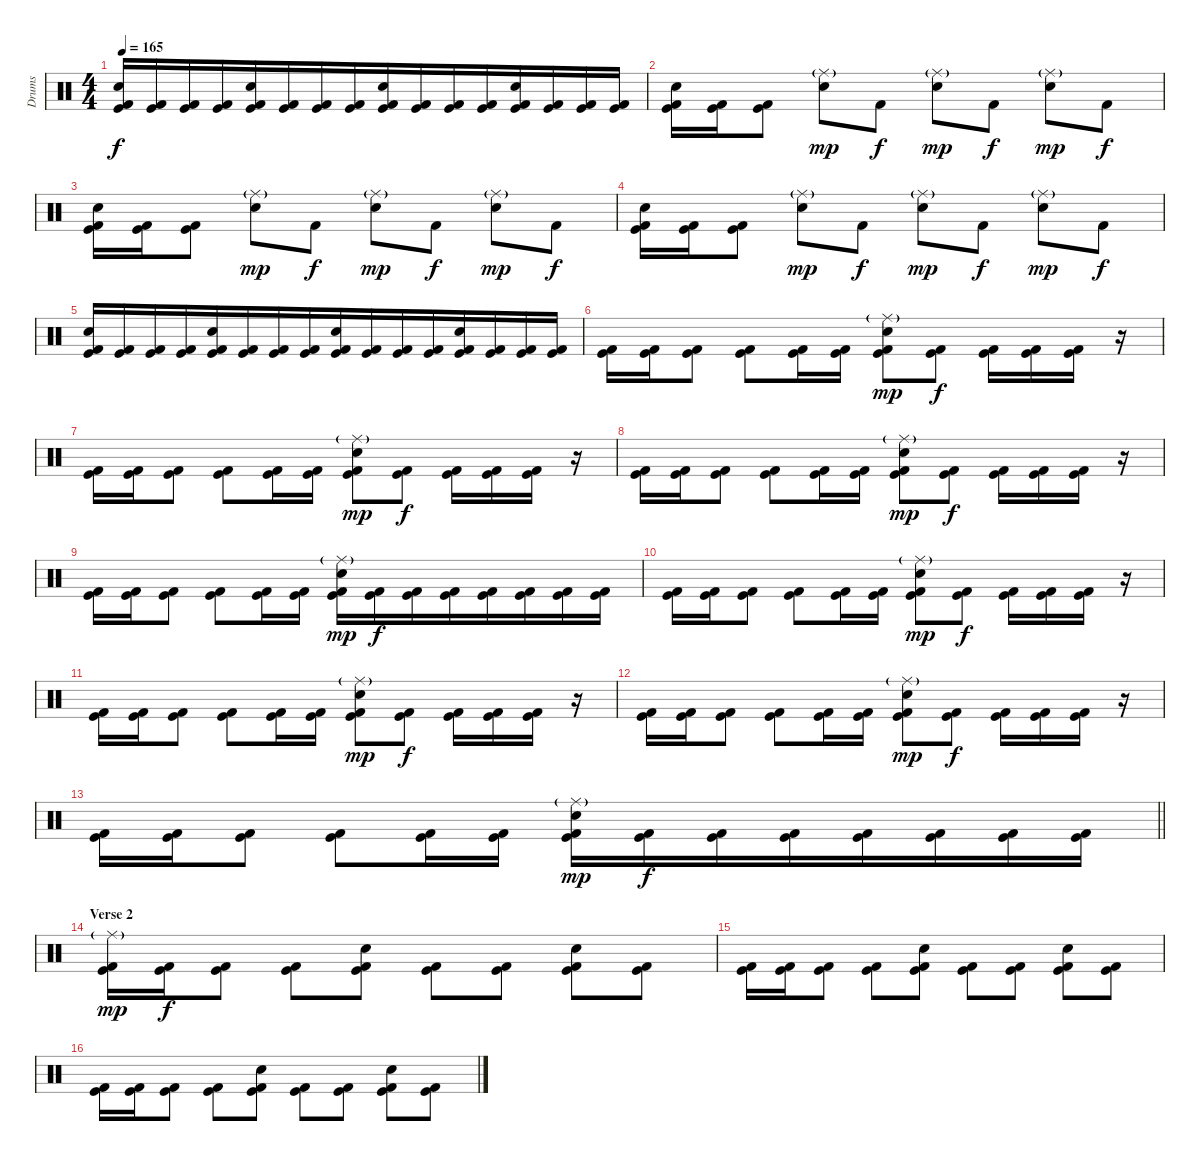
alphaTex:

\track ("Drums" "Drums") {instrument percussion}
\staff {score}
\articulation defaults
\ts (4 4)
\tempo 165
\clef neutral
\ks c
("Snare (hit) 2" "Kick (hit)" "Kick (hit) 2").16{dy f} ("Kick (hit)" "Kick (hit) 2").16 ("Kick (hit)" "Kick (hit) 2").16 ("Kick (hit)" "Kick (hit) 2").16{beam merge} ("Snare (hit) 2" "Kick (hit)" "Kick (hit) 2").16 ("Kick (hit)" "Kick (hit) 2").16 ("Kick (hit)" "Kick (hit) 2").16 ("Kick (hit)" "Kick (hit) 2").16{beam merge} ("Snare (hit) 2" "Kick (hit)" "Kick (hit) 2").16 ("Kick (hit)" "Kick (hit) 2").16 ("Kick (hit)" "Kick (hit) 2").16 ("Kick (hit)" "Kick (hit) 2").16{beam merge} ("Snare (hit) 2" "Kick (hit)" "Kick (hit) 2").16 ("Kick (hit)" "Kick (hit) 2").16 ("Kick (hit)" "Kick (hit) 2").16 ("Kick (hit)" "Kick (hit) 2").16 |
("Snare (hit) 2" "Kick (hit)" "Kick (hit) 2").16{beam Down} ("Kick (hit)" "Kick (hit) 2").16{beam Down} ("Kick (hit)" "Kick (hit) 2").8{beam Down} ("Ride (middle)"{g} "Snare (hit) 2").8{dy mp} "Kick (hit) 2".8{dy f} ("Ride (middle)"{g} "Snare (hit) 2").8{dy mp} "Kick (hit) 2".8{dy f} ("Ride (middle)"{g} "Snare (hit) 2").8{dy mp} "Kick (hit) 2".8{dy f} |
("Snare (hit) 2" "Kick (hit)" "Kick (hit) 2").16{beam Down} ("Kick (hit)" "Kick (hit) 2").16{beam Down} ("Kick (hit)" "Kick (hit) 2").8{beam Down} ("Ride (middle)"{g} "Snare (hit) 2").8{dy mp} "Kick (hit) 2".8{dy f} ("Ride (middle)"{g} "Snare (hit) 2").8{dy mp} "Kick (hit) 2".8{dy f} ("Ride (middle)"{g} "Snare (hit) 2").8{dy mp} "Kick (hit) 2".8{dy f} |
("Snare (hit) 2" "Kick (hit)" "Kick (hit) 2").16{beam Down} ("Kick (hit)" "Kick (hit) 2").16{beam Down} ("Kick (hit)" "Kick (hit) 2").8{beam Down} ("Ride (middle)"{g} "Snare (hit) 2").8{dy mp} "Kick (hit) 2".8{dy f} ("Ride (middle)"{g} "Snare (hit) 2").8{dy mp} "Kick (hit) 2".8{dy f} ("Ride (middle)"{g} "Snare (hit) 2").8{dy mp} "Kick (hit) 2".8{dy f} |
("Snare (hit) 2" "Kick (hit)" "Kick (hit) 2").16 ("Kick (hit)" "Kick (hit) 2").16 ("Kick (hit)" "Kick (hit) 2").16 ("Kick (hit)" "Kick (hit) 2").16{beam merge} ("Snare (hit) 2" "Kick (hit)" "Kick (hit) 2").16 ("Kick (hit)" "Kick (hit) 2").16 ("Kick (hit)" "Kick (hit) 2").16 ("Kick (hit)" "Kick (hit) 2").16{beam merge} ("Snare (hit) 2" "Kick (hit)" "Kick (hit) 2").16 ("Kick (hit)" "Kick (hit) 2").16 ("Kick (hit)" "Kick (hit) 2").16 ("Kick (hit)" "Kick (hit) 2").16{beam merge} ("Snare (hit) 2" "Kick (hit)" "Kick (hit) 2").16 ("Kick (hit)" "Kick (hit) 2").16 ("Kick (hit)" "Kick (hit) 2").16 ("Kick (hit)" "Kick (hit) 2").16 |
("Kick (hit)" "Kick (hit) 2").16{beam Down} ("Kick (hit)" "Kick (hit) 2").16{beam Down} ("Kick (hit)" "Kick (hit) 2").8{beam Down} ("Kick (hit)" "Kick (hit) 2").8{beam Down} ("Kick (hit)" "Kick (hit) 2").16{beam Down} ("Kick (hit)" "Kick (hit) 2").16{beam Down} ("Ride (middle)"{g} "Snare (hit) 2" "Kick (hit)" "Kick (hit) 2").8{dy mp beam merge} ("Kick (hit)" "Kick (hit) 2").8{dy f} ("Kick (hit)" "Kick (hit) 2").16{beam Down beam merge} ("Kick (hit)" "Kick (hit) 2").16{beam Down} ("Kick (hit)" "Kick (hit) 2").16{beam Down} r.16 |
("Kick (hit)" "Kick (hit) 2").16{beam Down} ("Kick (hit)" "Kick (hit) 2").16{beam Down} ("Kick (hit)" "Kick (hit) 2").8{beam Down} ("Kick (hit)" "Kick (hit) 2").8{beam Down} ("Kick (hit)" "Kick (hit) 2").16{beam Down} ("Kick (hit)" "Kick (hit) 2").16{beam Down} ("Ride (middle)"{g} "Snare (hit) 2" "Kick (hit)" "Kick (hit) 2").8{dy mp beam merge} ("Kick (hit)" "Kick (hit) 2").8{dy f} ("Kick (hit)" "Kick (hit) 2").16{beam Down beam merge} ("Kick (hit)" "Kick (hit) 2").16{beam Down} ("Kick (hit)" "Kick (hit) 2").16{beam Down} r.16 |
("Kick (hit)" "Kick (hit) 2").16{beam Down} ("Kick (hit)" "Kick (hit) 2").16{beam Down} ("Kick (hit)" "Kick (hit) 2").8{beam Down} ("Kick (hit)" "Kick (hit) 2").8{beam Down} ("Kick (hit)" "Kick (hit) 2").16{beam Down} ("Kick (hit)" "Kick (hit) 2").16{beam Down} ("Ride (middle)"{g} "Snare (hit) 2" "Kick (hit)" "Kick (hit) 2").8{dy mp beam merge} ("Kick (hit)" "Kick (hit) 2").8{dy f} ("Kick (hit)" "Kick (hit) 2").16{beam Down beam merge} ("Kick (hit)" "Kick (hit) 2").16{beam Down} ("Kick (hit)" "Kick (hit) 2").16{beam Down} r.16 |
("Kick (hit)" "Kick (hit) 2").16{beam Down} ("Kick (hit)" "Kick (hit) 2").16{beam Down} ("Kick (hit)" "Kick (hit) 2").8{beam Down} ("Kick (hit)" "Kick (hit) 2").8{beam Down} ("Kick (hit)" "Kick (hit) 2").16{beam Down} ("Kick (hit)" "Kick (hit) 2").16{beam Down} ("Ride (middle)"{g} "Snare (hit) 2" "Kick (hit)" "Kick (hit) 2").16{dy mp beam merge} ("Kick (hit)" "Kick (hit) 2").16{dy f} ("Kick (hit)" "Kick (hit) 2").16{beam merge} ("Kick (hit)" "Kick (hit) 2").16{beam merge} ("Kick (hit)" "Kick (hit) 2").16 ("Kick (hit)" "Kick (hit) 2").16 ("Kick (hit)" "Kick (hit) 2").16 ("Kick (hit)" "Kick (hit) 2").16 |
("Kick (hit)" "Kick (hit) 2").16{beam Down} ("Kick (hit)" "Kick (hit) 2").16{beam Down} ("Kick (hit)" "Kick (hit) 2").8{beam Down} ("Kick (hit)" "Kick (hit) 2").8{beam Down} ("Kick (hit)" "Kick (hit) 2").16{beam Down} ("Kick (hit)" "Kick (hit) 2").16{beam Down} ("Ride (middle)"{g} "Snare (hit) 2" "Kick (hit)" "Kick (hit) 2").8{dy mp beam merge} ("Kick (hit)" "Kick (hit) 2").8{dy f} ("Kick (hit)" "Kick (hit) 2").16{beam Down beam merge} ("Kick (hit)" "Kick (hit) 2").16{beam Down} ("Kick (hit)" "Kick (hit) 2").16{beam Down} r.16 |
("Kick (hit)" "Kick (hit) 2").16{beam Down} ("Kick (hit)" "Kick (hit) 2").16{beam Down} ("Kick (hit)" "Kick (hit) 2").8{beam Down} ("Kick (hit)" "Kick (hit) 2").8{beam Down} ("Kick (hit)" "Kick (hit) 2").16{beam Down} ("Kick (hit)" "Kick (hit) 2").16{beam Down} ("Ride (middle)"{g} "Snare (hit) 2" "Kick (hit)" "Kick (hit) 2").8{dy mp beam merge} ("Kick (hit)" "Kick (hit) 2").8{dy f} ("Kick (hit)" "Kick (hit) 2").16{beam Down beam merge} ("Kick (hit)" "Kick (hit) 2").16{beam Down} ("Kick (hit)" "Kick (hit) 2").16{beam Down} r.16 |
("Kick (hit)" "Kick (hit) 2").16{beam Down} ("Kick (hit)" "Kick (hit) 2").16{beam Down} ("Kick (hit)" "Kick (hit) 2").8{beam Down} ("Kick (hit)" "Kick (hit) 2").8{beam Down} ("Kick (hit)" "Kick (hit) 2").16{beam Down} ("Kick (hit)" "Kick (hit) 2").16{beam Down} ("Ride (middle)"{g} "Snare (hit) 2" "Kick (hit)" "Kick (hit) 2").8{dy mp beam merge} ("Kick (hit)" "Kick (hit) 2").8{dy f} ("Kick (hit)" "Kick (hit) 2").16{beam Down beam merge} ("Kick (hit)" "Kick (hit) 2").16{beam Down} ("Kick (hit)" "Kick (hit) 2").16{beam Down} r.16 |
\barLineRight lightlight
("Kick (hit)" "Kick (hit) 2").16{beam Down} ("Kick (hit)" "Kick (hit) 2").16{beam Down} ("Kick (hit)" "Kick (hit) 2").8{beam Down} ("Kick (hit)" "Kick (hit) 2").8{beam Down} ("Kick (hit)" "Kick (hit) 2").16{beam Down} ("Kick (hit)" "Kick (hit) 2").16{beam Down} ("Ride (middle)"{g} "Snare (hit) 2" "Kick (hit)" "Kick (hit) 2").16{dy mp beam merge} ("Kick (hit)" "Kick (hit) 2").16{dy f} ("Kick (hit)" "Kick (hit) 2").16{beam merge} ("Kick (hit)" "Kick (hit) 2").16{beam merge} ("Kick (hit)" "Kick (hit) 2").16 ("Kick (hit)" "Kick (hit) 2").16 ("Kick (hit)" "Kick (hit) 2").16 ("Kick (hit)" "Kick (hit) 2").16 |
\section ("" "Verse 2")
("Ride (middle)"{g} "Kick (hit)" "Kick (hit) 2").16{dy mp beam Down} ("Kick (hit)" "Kick (hit) 2").16{dy f beam Down} ("Kick (hit)" "Kick (hit) 2").8{beam Down} ("Kick (hit)" "Kick (hit) 2").8{beam Down} ("Snare (hit) 2" "Kick (hit)" "Kick (hit) 2").8{beam Down} ("Kick (hit)" "Kick (hit) 2").8{beam Down} ("Kick (hit)" "Kick (hit) 2").8{beam Down} ("Snare (hit) 2" "Kick (hit)" "Kick (hit) 2").8{beam Down} ("Kick (hit)" "Kick (hit) 2").8{beam Down} |
("Kick (hit)" "Kick (hit) 2").16{beam Down} ("Kick (hit)" "Kick (hit) 2").16{beam Down} ("Kick (hit)" "Kick (hit) 2").8{beam Down} ("Kick (hit)" "Kick (hit) 2").8{beam Down} ("Snare (hit) 2" "Kick (hit)" "Kick (hit) 2").8{beam Down} ("Kick (hit)" "Kick (hit) 2").8{beam Down} ("Kick (hit)" "Kick (hit) 2").8{beam Down} ("Snare (hit) 2" "Kick (hit)" "Kick (hit) 2").8{beam Down} ("Kick (hit)" "Kick (hit) 2").8{beam Down} |
("Kick (hit)" "Kick (hit) 2").16{beam Down} ("Kick (hit)" "Kick (hit) 2").16{beam Down} ("Kick (hit)" "Kick (hit) 2").8{beam Down} ("Kick (hit)" "Kick (hit) 2").8{beam Down} ("Snare (hit) 2" "Kick (hit)" "Kick (hit) 2").8{beam Down} ("Kick (hit)" "Kick (hit) 2").8{beam Down} ("Kick (hit)" "Kick (hit) 2").8{beam Down} ("Snare (hit) 2" "Kick (hit)" "Kick (hit) 2").8{beam Down} ("Kick (hit)" "Kick (hit) 2").8{beam Down}
